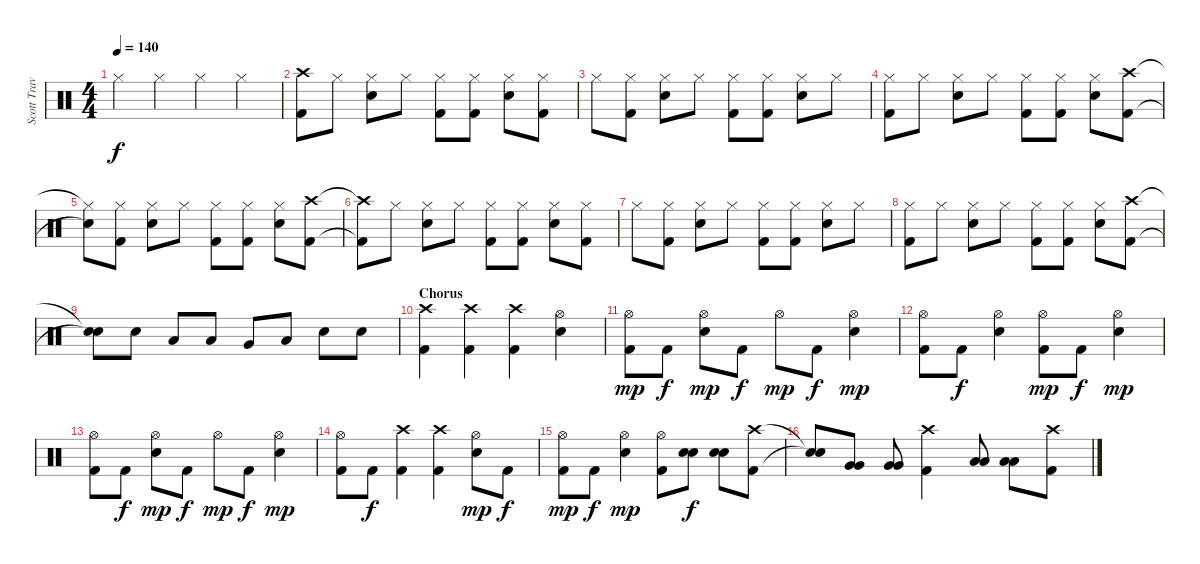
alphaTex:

\track ("Scott Travis" "Scott Trav") {instrument percussion}
\staff {score}
\articulation defaults
\ts (4 4)
\tempo 140
\clef neutral
\ks c "Hi-Hat (closed)".4{dy f} "Hi-Hat (closed)".4 "Hi-Hat (closed)".4 "Hi-Hat (closed)".4
|
("Crash high (hit)" "Kick (hit) 2").8 "Hi-Hat (closed)".8 ("Hi-Hat (closed)" "Snare (hit) 2").8 "Hi-Hat (closed)".8 ("Hi-Hat (closed)" "Kick (hit) 2").8 ("Hi-Hat (closed)" "Kick (hit) 2").8 ("Hi-Hat (closed)" "Snare (hit) 2").8 ("Hi-Hat (closed)" "Kick (hit) 2").8 |
"Hi-Hat (closed)".8 ("Hi-Hat (closed)" "Kick (hit) 2").8 ("Hi-Hat (closed)" "Snare (hit) 2").8 "Hi-Hat (closed)".8 ("Hi-Hat (closed)" "Kick (hit) 2").8 ("Hi-Hat (closed)" "Kick (hit) 2").8 ("Hi-Hat (closed)" "Snare (hit) 2").8 "Hi-Hat (closed)".8 |
("Hi-Hat (closed)" "Kick (hit) 2").8 "Hi-Hat (closed)".8 ("Hi-Hat (closed)" "Snare (hit) 2").8 "Hi-Hat (closed)".8 ("Hi-Hat (closed)" "Kick (hit) 2").8 ("Hi-Hat (closed)" "Kick (hit) 2").8 ("Hi-Hat (closed)" "Snare (hit) 2").8 ("Crash high (hit)" "Kick (hit) 2").8 |
("Hi-Hat (closed)"{t} "Snare (hit)"{t}).8 ("Hi-Hat (closed)" "Kick (hit) 2").8 ("Hi-Hat (closed)" "Snare (hit) 2").8 "Hi-Hat (closed)".8 ("Hi-Hat (closed)" "Kick (hit) 2").8 ("Hi-Hat (closed)" "Kick (hit) 2").8 ("Hi-Hat (closed)" "Snare (hit) 2").8 ("Crash high (hit)" "Kick (hit) 2").8 |
("Crash high (hit)"{t} "Kick (hit) 2"{t}).8 "Hi-Hat (closed)".8 ("Hi-Hat (closed)" "Snare (hit) 2").8 "Hi-Hat (closed)".8 ("Hi-Hat (closed)" "Kick (hit) 2").8 ("Hi-Hat (closed)" "Kick (hit) 2").8 ("Hi-Hat (closed)" "Snare (hit) 2").8 ("Hi-Hat (closed)" "Kick (hit) 2").8 |
"Hi-Hat (closed)".8 ("Hi-Hat (closed)" "Kick (hit) 2").8 ("Hi-Hat (closed)" "Snare (hit) 2").8 "Hi-Hat (closed)".8 ("Hi-Hat (closed)" "Kick (hit) 2").8 ("Hi-Hat (closed)" "Kick (hit) 2").8 ("Hi-Hat (closed)" "Snare (hit) 2").8 "Hi-Hat (closed)".8 |
("Hi-Hat (closed)" "Kick (hit) 2").8 "Hi-Hat (closed)".8 ("Hi-Hat (closed)" "Snare (hit) 2").8 "Hi-Hat (closed)".8 ("Hi-Hat (closed)" "Kick (hit) 2").8 ("Hi-Hat (closed)" "Kick (hit) 2").8 ("Hi-Hat (closed)" "Snare (hit) 2").8 ("Crash high (hit)" "Kick (hit) 2").8 |
("Snare (hit)"{t} "Snare (hit)"{t}).8 "Snare (hit) 2".8 "Low Tom (hit)".8 "Low Tom (hit)".8 "Very Low Tom (hit)".8 "Low Floor Tom (hit)".8 "Snare (hit) 2".8 "Snare (hit) 2".8 |
\section ("" "Chorus")
("Crash high (hit)" "Kick (hit) 2").4 ("Crash high (hit)" "Kick (hit) 2").4 ("Crash high (hit)" "Kick (hit) 2").4 ("Hi-Hat (open)" "Snare (hit) 2").4 |
("Hi-Hat (open)" "Kick (hit) 2").8{dy mp} "Kick (hit) 2".8{dy f} ("Hi-Hat (open)" "Snare (hit) 2").8{dy mp} "Kick (hit) 2".8{dy f} "Hi-Hat (open)".8{dy mp} "Kick (hit) 2".8{dy f} ("Hi-Hat (open)" "Snare (hit) 2").4{dy mp} |
("Hi-Hat (open)" "Kick (hit) 2").8 "Kick (hit) 2".8{dy f} ("Hi-Hat (open)" "Snare (hit) 2").4 ("Hi-Hat (open)" "Kick (hit) 2").8{dy mp} "Kick (hit) 2".8{dy f} ("Hi-Hat (open)" "Snare (hit) 2").4{dy mp} |
("Hi-Hat (open)" "Kick (hit) 2").8 "Kick (hit) 2".8{dy f} ("Hi-Hat (open)" "Snare (hit) 2").8{dy mp} "Kick (hit) 2".8{dy f} "Hi-Hat (open)".8{dy mp} "Kick (hit) 2".8{dy f} ("Hi-Hat (open)" "Snare (hit) 2").4{dy mp} |
("Hi-Hat (open)" "Kick (hit) 2").8 "Kick (hit) 2".8{dy f} ("Crash high (hit)" "Kick (hit) 2").4 ("Crash high (hit)" "Kick (hit) 2").4 ("Hi-Hat (open)" "Snare (hit) 2").8{dy mp} "Kick (hit) 2".8{dy f} |
("Hi-Hat (open)" "Kick (hit) 2").8{dy mp} "Kick (hit) 2".8{dy f} ("Hi-Hat (open)" "Snare (hit) 2").4{dy mp} ("Hi-Hat (open)" "Kick (hit) 2").8 ("Snare (hit) 2" "Snare (hit) 2").8{dy f} ("Snare (hit) 2" "Snare (hit) 2").8 ("Crash high (hit)" "Kick (hit) 2").8 |
("Snare (hit)"{t} "Snare (hit)"{t}).8 ("Very Low Tom (hit)" "Very Low Tom (hit)").8 ("Very Low Tom (hit)" "Very Low Tom (hit)").8 ("Crash high (hit)" "Kick (hit) 2").4 ("Low Tom (hit)" "Low Tom (hit)").8 ("Low Tom (hit)" "Low Tom (hit)").8 ("Crash high (hit)" "Kick (hit) 2").8
